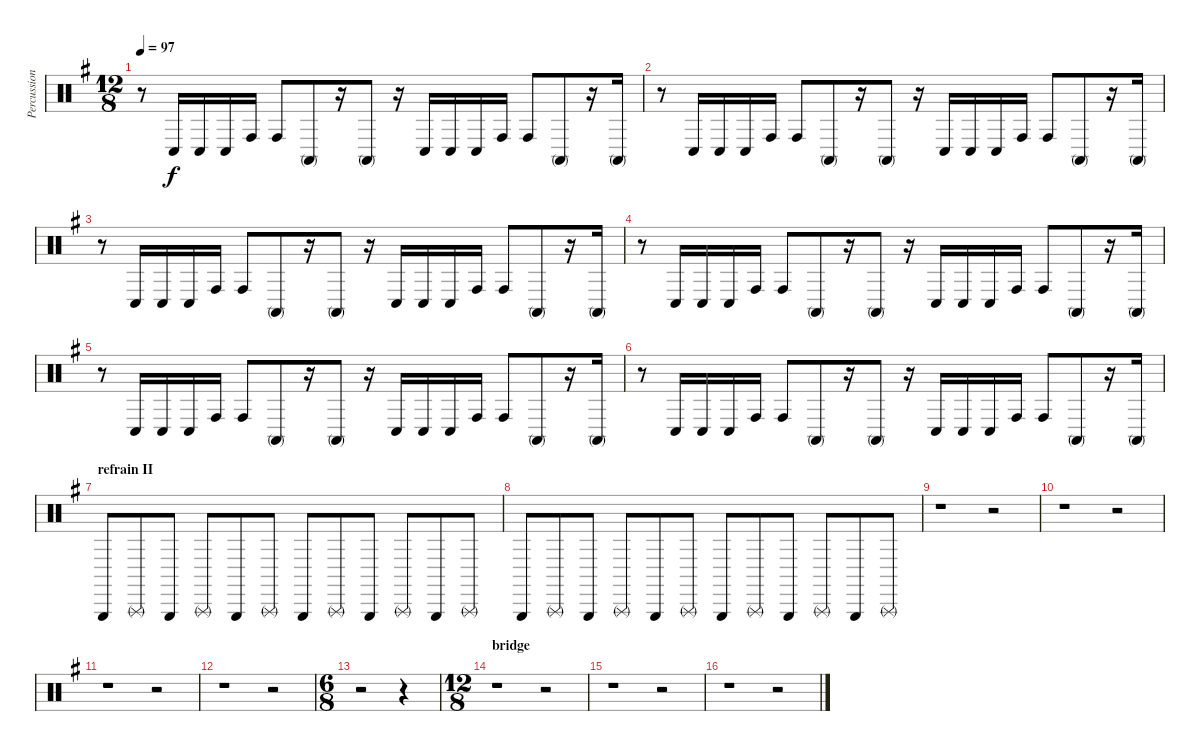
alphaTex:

\track ("Percussions" "Percussion") {instrument percussion}
\staff {score}
\articulation defaults
\ts (12 8)
\tempo 97
\clef neutral
\ks g
r.8{dy f} "Conga low (hit)".16 "Conga low (hit)".16 "Conga low (hit)".16 "Conga high (hit)".16 "Conga high (hit)".8 "Conga high (mute)".8 r.16 "Conga high (mute)".8 r.16 "Conga low (hit)".16 "Conga low (hit)".16 "Conga low (hit)".16 "Conga high (hit)".16 "Conga high (hit)".8 "Conga high (mute)".8 r.16 "Conga high (mute)".16 |
r.8 "Conga low (hit)".16 "Conga low (hit)".16 "Conga low (hit)".16 "Conga high (hit)".16 "Conga high (hit)".8 "Conga high (mute)".8 r.16 "Conga high (mute)".8 r.16 "Conga low (hit)".16 "Conga low (hit)".16 "Conga low (hit)".16 "Conga high (hit)".16 "Conga high (hit)".8 "Conga high (mute)".8 r.16 "Conga high (mute)".16 |
r.8 "Conga low (hit)".16 "Conga low (hit)".16 "Conga low (hit)".16 "Conga high (hit)".16 "Conga high (hit)".8 "Conga high (mute)".8 r.16 "Conga high (mute)".8 r.16 "Conga low (hit)".16 "Conga low (hit)".16 "Conga low (hit)".16 "Conga high (hit)".16 "Conga high (hit)".8 "Conga high (mute)".8 r.16 "Conga high (mute)".16 |
r.8 "Conga low (hit)".16 "Conga low (hit)".16 "Conga low (hit)".16 "Conga high (hit)".16 "Conga high (hit)".8 "Conga high (mute)".8 r.16 "Conga high (mute)".8 r.16 "Conga low (hit)".16 "Conga low (hit)".16 "Conga low (hit)".16 "Conga high (hit)".16 "Conga high (hit)".8 "Conga high (mute)".8 r.16 "Conga high (mute)".16 |
r.8 "Conga low (hit)".16 "Conga low (hit)".16 "Conga low (hit)".16 "Conga high (hit)".16 "Conga high (hit)".8 "Conga high (mute)".8 r.16 "Conga high (mute)".8 r.16 "Conga low (hit)".16 "Conga low (hit)".16 "Conga low (hit)".16 "Conga high (hit)".16 "Conga high (hit)".8 "Conga high (mute)".8 r.16 "Conga high (mute)".16 |
r.8 "Conga low (hit)".16 "Conga low (hit)".16 "Conga low (hit)".16 "Conga high (hit)".16 "Conga high (hit)".8 "Conga high (mute)".8 r.16 "Conga high (mute)".8 r.16 "Conga low (hit)".16 "Conga low (hit)".16 "Conga low (hit)".16 "Conga high (hit)".16 "Conga high (hit)".8 "Conga high (mute)".8 r.16 "Conga high (mute)".16 |
\section ("" "refrain II")
"Triangle (hit)".8 "Triangle (rnute)".8 "Triangle (hit)".8 "Triangle (rnute)".8 "Triangle (hit)".8 "Triangle (rnute)".8 "Triangle (hit)".8 "Triangle (rnute)".8 "Triangle (hit)".8 "Triangle (rnute)".8 "Triangle (hit)".8 "Triangle (rnute)".8 |
"Triangle (hit)".8 "Triangle (rnute)".8 "Triangle (hit)".8 "Triangle (rnute)".8 "Triangle (hit)".8 "Triangle (rnute)".8 "Triangle (hit)".8 "Triangle (rnute)".8 "Triangle (hit)".8 "Triangle (rnute)".8 "Triangle (hit)".8 "Triangle (rnute)".8 |
r.1 r.2 |
r.1 r.2 |
r.1 r.2 |
r.1 r.2 |
\ts (6 8)
r.2 r.4 |
\ts (12 8)
\section ("" "bridge")
r.1 r.2 |
r.1 r.2 |
r.1 r.2
